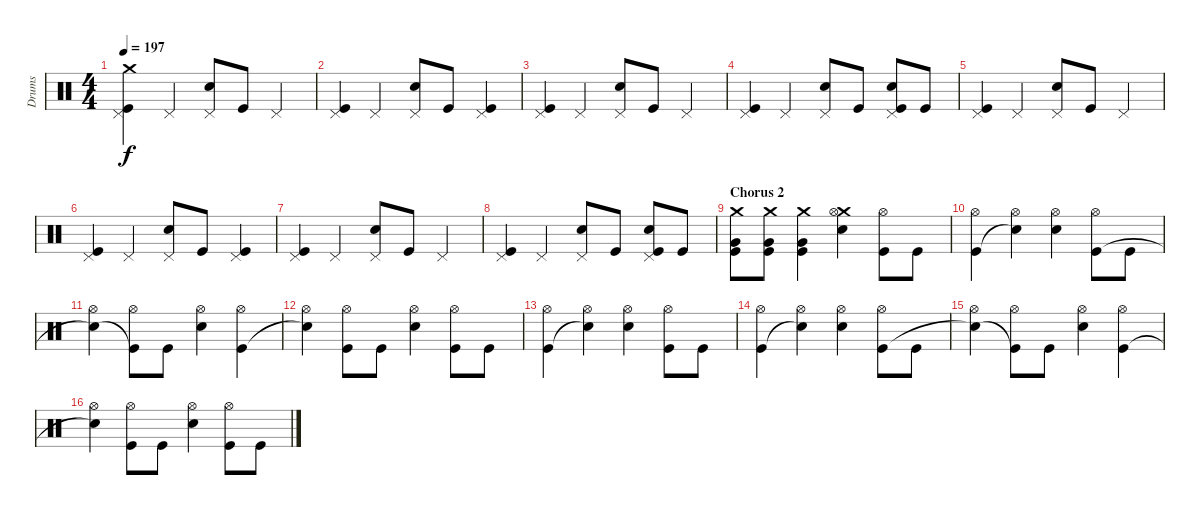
\track ("Drums" "Drums") {instrument percussion}
\staff {score}
\articulation defaults
\ts (4 4)
\tempo 197
\clef neutral
\ks c
("Crash medium (hit)" "Pedal Hi-Hat (hit)" "Kick (hit)").4{dy f volume 16} "Pedal Hi-Hat (hit)".4 ("Pedal Hi-Hat (hit)" "Snare (hit) 2").8 "Kick (hit)".8 "Pedal Hi-Hat (hit)".4 |
("Pedal Hi-Hat (hit)" "Kick (hit)").4 "Pedal Hi-Hat (hit)".4 ("Pedal Hi-Hat (hit)" "Snare (hit) 2").8 "Kick (hit)".8 ("Pedal Hi-Hat (hit)" "Kick (hit)").4 |
("Pedal Hi-Hat (hit)" "Kick (hit)").4 "Pedal Hi-Hat (hit)".4 ("Pedal Hi-Hat (hit)" "Snare (hit) 2").8 "Kick (hit)".8 "Pedal Hi-Hat (hit)".4 |
("Pedal Hi-Hat (hit)" "Kick (hit)").4 "Pedal Hi-Hat (hit)".4 ("Pedal Hi-Hat (hit)" "Snare (hit) 2").8 "Kick (hit)".8 ("Pedal Hi-Hat (hit)" "Snare (hit) 2" "Kick (hit)").8 "Kick (hit)".8 |
("Pedal Hi-Hat (hit)" "Kick (hit)").4 "Pedal Hi-Hat (hit)".4 ("Pedal Hi-Hat (hit)" "Snare (hit) 2").8 "Kick (hit)".8 "Pedal Hi-Hat (hit)".4 |
("Pedal Hi-Hat (hit)" "Kick (hit)").4 "Pedal Hi-Hat (hit)".4 ("Pedal Hi-Hat (hit)" "Snare (hit) 2").8 "Kick (hit)".8 ("Pedal Hi-Hat (hit)" "Kick (hit)").4 |
("Pedal Hi-Hat (hit)" "Kick (hit)").4 "Pedal Hi-Hat (hit)".4 ("Pedal Hi-Hat (hit)" "Snare (hit) 2").8 "Kick (hit)".8 "Pedal Hi-Hat (hit)".4 |
("Pedal Hi-Hat (hit)" "Kick (hit)").4 "Pedal Hi-Hat (hit)".4 ("Pedal Hi-Hat (hit)" "Snare (hit) 2").8 "Kick (hit)".8 ("Pedal Hi-Hat (hit)" "Snare (hit) 2" "Kick (hit)").8 "Kick (hit)".8 |
\section ("" "Chorus 2")
("Crash medium (hit)" "Very Low Tom (hit)" "Kick (hit)").8 ("Crash medium (hit)" "Very Low Tom (hit)" "Kick (hit)").8 ("Crash medium (hit)" "Very Low Tom (hit)" "Kick (hit)").4 ("Crash medium (hit)" "Hi-Hat (open)" "Snare (hit) 2").4 ("Hi-Hat (open)" "Kick (hit)").8 "Kick (hit)".8 |
("Hi-Hat (open)" "Kick (hit)").4 ("Hi-Hat (open)" "Snare (hit)"{t}).4 ("Hi-Hat (open)" "Snare (hit) 2").4 ("Hi-Hat (open)" "Kick (hit)").8 "Kick (hit)".8 |
("Hi-Hat (open)" "Snare (hit)"{t}).4 ("Hi-Hat (open)" "Kick (hit)"{t}).8 "Kick (hit)".8 ("Hi-Hat (open)" "Snare (hit) 2").4 ("Hi-Hat (open)" "Kick (hit)").4 |
("Hi-Hat (open)" "Snare (hit)"{t}).4 ("Hi-Hat (open)" "Kick (hit)").8 "Kick (hit)".8 ("Hi-Hat (open)" "Snare (hit) 2").4 ("Hi-Hat (open)" "Kick (hit)").8 "Kick (hit)".8 |
("Hi-Hat (open)" "Kick (hit)").4 ("Hi-Hat (open)" "Snare (hit)"{t}).4 ("Hi-Hat (open)" "Snare (hit) 2").4 ("Hi-Hat (open)" "Kick (hit)").8 "Kick (hit)".8 |
("Hi-Hat (open)" "Kick (hit)").4 ("Hi-Hat (open)" "Snare (hit)"{t}).4 ("Hi-Hat (open)" "Snare (hit) 2").4 ("Hi-Hat (open)" "Kick (hit)").8 "Kick (hit)".8 |
("Hi-Hat (open)" "Snare (hit)"{t}).4 ("Hi-Hat (open)" "Kick (hit)"{t}).8 "Kick (hit)".8 ("Hi-Hat (open)" "Snare (hit) 2").4 ("Hi-Hat (open)" "Kick (hit)").4 |
("Hi-Hat (open)" "Snare (hit)"{t}).4 ("Hi-Hat (open)" "Kick (hit)").8 "Kick (hit)".8 ("Hi-Hat (open)" "Snare (hit) 2").4 ("Hi-Hat (open)" "Kick (hit)").8 "Kick (hit)".8
